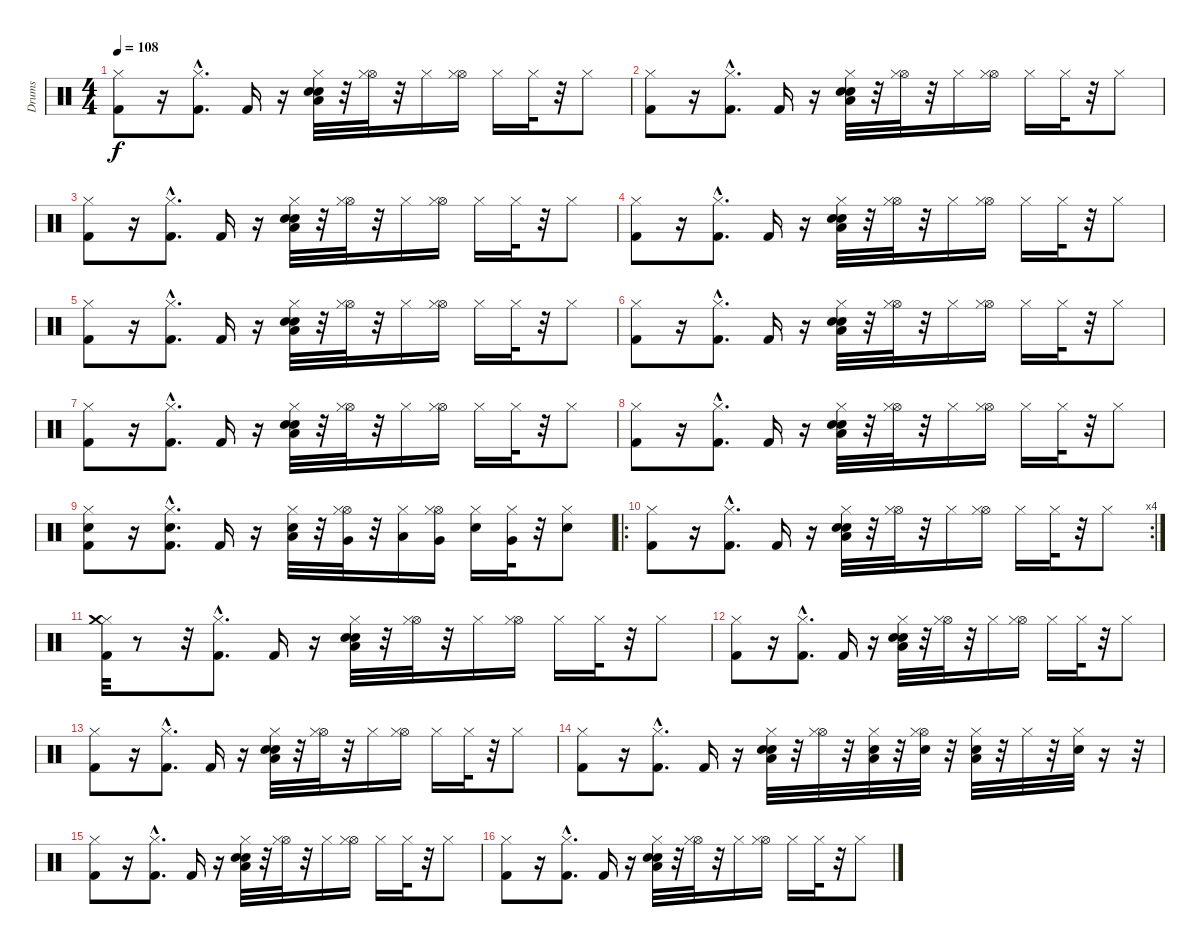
\track ("Drums" "Drums") {instrument percussion}
\staff {score}
\articulation defaults
\ts (4 4)
\tempo 108
\clef neutral
\ks c
("Hi-Hat (closed)" "Kick (hit) 2").8{dy f} r.16 ("Kick (hit) 2"{hac} "Hi-Hat (closed)"{hac}).8{d} "Kick (hit) 2".16 r.16 ("Low Floor Tom (hit)" "Electric Snare (hit)" "Snare (hit) 2" "Hi-Hat (closed)").32 r.32 ("Hi-Hat (open)" "Hi-Hat (closed)").32 r.32 "Hi-Hat (closed)".16 ("Hi-Hat (open)" "Hi-Hat (closed)").16 "Hi-Hat (closed)".16 "Hi-Hat (closed)".32 r.32 "Hi-Hat (closed)".8 |
("Hi-Hat (closed)" "Kick (hit) 2").8 r.16 ("Kick (hit) 2"{hac} "Hi-Hat (closed)"{hac}).8{d} "Kick (hit) 2".16 r.16 ("Low Floor Tom (hit)" "Electric Snare (hit)" "Snare (hit) 2" "Hi-Hat (closed)").32 r.32 ("Hi-Hat (open)" "Hi-Hat (closed)").32 r.32 "Hi-Hat (closed)".16 ("Hi-Hat (open)" "Hi-Hat (closed)").16 "Hi-Hat (closed)".16 "Hi-Hat (closed)".32 r.32 "Hi-Hat (closed)".8 |
("Hi-Hat (closed)" "Kick (hit) 2").8 r.16 ("Kick (hit) 2"{hac} "Hi-Hat (closed)"{hac}).8{d} "Kick (hit) 2".16 r.16 ("Low Floor Tom (hit)" "Electric Snare (hit)" "Snare (hit) 2" "Hi-Hat (closed)").32 r.32 ("Hi-Hat (open)" "Hi-Hat (closed)").32 r.32 "Hi-Hat (closed)".16 ("Hi-Hat (open)" "Hi-Hat (closed)").16 "Hi-Hat (closed)".16 "Hi-Hat (closed)".32 r.32 "Hi-Hat (closed)".8 |
("Hi-Hat (closed)" "Kick (hit) 2").8 r.16 ("Kick (hit) 2"{hac} "Hi-Hat (closed)"{hac}).8{d} "Kick (hit) 2".16 r.16 ("Low Floor Tom (hit)" "Electric Snare (hit)" "Snare (hit) 2" "Hi-Hat (closed)").32 r.32 ("Hi-Hat (open)" "Hi-Hat (closed)").32 r.32 "Hi-Hat (closed)".16 ("Hi-Hat (open)" "Hi-Hat (closed)").16 "Hi-Hat (closed)".16 "Hi-Hat (closed)".32 r.32 "Hi-Hat (closed)".8 |
("Hi-Hat (closed)" "Kick (hit) 2").8 r.16 ("Kick (hit) 2"{hac} "Hi-Hat (closed)"{hac}).8{d} "Kick (hit) 2".16 r.16 ("Low Floor Tom (hit)" "Electric Snare (hit)" "Snare (hit) 2" "Hi-Hat (closed)").32 r.32 ("Hi-Hat (open)" "Hi-Hat (closed)").32 r.32 "Hi-Hat (closed)".16 ("Hi-Hat (open)" "Hi-Hat (closed)").16 "Hi-Hat (closed)".16 "Hi-Hat (closed)".32 r.32 "Hi-Hat (closed)".8 |
("Hi-Hat (closed)" "Kick (hit) 2").8 r.16 ("Kick (hit) 2"{hac} "Hi-Hat (closed)"{hac}).8{d} "Kick (hit) 2".16 r.16 ("Low Floor Tom (hit)" "Electric Snare (hit)" "Snare (hit) 2" "Hi-Hat (closed)").32 r.32 ("Hi-Hat (open)" "Hi-Hat (closed)").32 r.32 "Hi-Hat (closed)".16 ("Hi-Hat (open)" "Hi-Hat (closed)").16 "Hi-Hat (closed)".16 "Hi-Hat (closed)".32 r.32 "Hi-Hat (closed)".8 |
("Hi-Hat (closed)" "Kick (hit) 2").8 r.16 ("Kick (hit) 2"{hac} "Hi-Hat (closed)"{hac}).8{d} "Kick (hit) 2".16 r.16 ("Low Floor Tom (hit)" "Electric Snare (hit)" "Snare (hit) 2" "Hi-Hat (closed)").32 r.32 ("Hi-Hat (open)" "Hi-Hat (closed)").32 r.32 "Hi-Hat (closed)".16 ("Hi-Hat (open)" "Hi-Hat (closed)").16 "Hi-Hat (closed)".16 "Hi-Hat (closed)".32 r.32 "Hi-Hat (closed)".8 |
("Hi-Hat (closed)" "Kick (hit) 2").8 r.16 ("Kick (hit) 2"{hac} "Hi-Hat (closed)"{hac}).8{d} "Kick (hit) 2".16 r.16 ("Low Floor Tom (hit)" "Electric Snare (hit)" "Snare (hit) 2" "Hi-Hat (closed)").32 r.32 ("Hi-Hat (open)" "Hi-Hat (closed)").32 r.32 "Hi-Hat (closed)".16 ("Hi-Hat (open)" "Hi-Hat (closed)").16 "Hi-Hat (closed)".16 "Hi-Hat (closed)".32 r.32 "Hi-Hat (closed)".8 |
("Kick (hit) 2" "Snare (hit) 2" "Hi-Hat (closed)").8 r.16 ("Kick (hit) 2"{hac} "Electric Snare (hit)"{hac} "Hi-Hat (closed)"{hac}).8{d} "Kick (hit) 2".16 r.16 ("Snare (hit) 2" "Low Tom (hit)" "Hi-Hat (closed)").32 r.32 ("Very Low Tom (hit)" "Hi-Hat (open)" "Hi-Hat (closed)").32 r.32 ("Hi-Hat (closed)" "Low Floor Tom (hit)").16 ("Hi-Hat (open)" "Very Low Tom (hit)" "Hi-Hat (closed)").16 ("Electric Snare (hit)" "Hi-Hat (closed)").16 ("Very Low Tom (hit)" "Hi-Hat (closed)").32 r.32 ("Snare (hit) 2" "Hi-Hat (closed)").8 |
\ro
\rc 4
("Hi-Hat (closed)" "Kick (hit) 2").8 r.16 ("Kick (hit) 2"{hac} "Hi-Hat (closed)"{hac}).8{d} "Kick (hit) 2".16 r.16 ("Low Floor Tom (hit)" "Electric Snare (hit)" "Snare (hit) 2" "Hi-Hat (closed)").32 r.32 ("Hi-Hat (open)" "Hi-Hat (closed)").32 r.32 "Hi-Hat (closed)".16 ("Hi-Hat (open)" "Hi-Hat (closed)").16 "Hi-Hat (closed)".16 "Hi-Hat (closed)".32 r.32 "Hi-Hat (closed)".8 |
("Hi-Hat (closed)" "Kick (hit) 2" "Crash medium (hit)").32 r.8 r.32 ("Kick (hit) 2"{hac} "Hi-Hat (closed)"{hac}).8{d} "Kick (hit) 2".16 r.16 ("Low Floor Tom (hit)" "Electric Snare (hit)" "Snare (hit) 2" "Hi-Hat (closed)").32 r.32 ("Hi-Hat (open)" "Hi-Hat (closed)").32 r.32 "Hi-Hat (closed)".16 ("Hi-Hat (open)" "Hi-Hat (closed)").16 "Hi-Hat (closed)".16 "Hi-Hat (closed)".32 r.32 "Hi-Hat (closed)".8 |
("Hi-Hat (closed)" "Kick (hit) 2").8 r.16 ("Kick (hit) 2"{hac} "Hi-Hat (closed)"{hac}).8{d} "Kick (hit) 2".16 r.16 ("Low Floor Tom (hit)" "Electric Snare (hit)" "Snare (hit) 2" "Hi-Hat (closed)").32 r.32 ("Hi-Hat (open)" "Hi-Hat (closed)").32 r.32 "Hi-Hat (closed)".16 ("Hi-Hat (open)" "Hi-Hat (closed)").16 "Hi-Hat (closed)".16 "Hi-Hat (closed)".32 r.32 "Hi-Hat (closed)".8 |
("Hi-Hat (closed)" "Kick (hit) 2").8 r.16 ("Kick (hit) 2"{hac} "Hi-Hat (closed)"{hac}).8{d} "Kick (hit) 2".16 r.16 ("Low Floor Tom (hit)" "Electric Snare (hit)" "Snare (hit) 2" "Hi-Hat (closed)").32 r.32 ("Hi-Hat (open)" "Hi-Hat (closed)").32 r.32 "Hi-Hat (closed)".16 ("Hi-Hat (open)" "Hi-Hat (closed)").16 "Hi-Hat (closed)".16 "Hi-Hat (closed)".32 r.32 "Hi-Hat (closed)".8 |
("Hi-Hat (closed)" "Kick (hit) 2").8 r.16 ("Kick (hit) 2"{hac} "Hi-Hat (closed)"{hac}).8{d} "Kick (hit) 2".16 r.16 ("Low Floor Tom (hit)" "Electric Snare (hit)" "Snare (hit) 2" "Hi-Hat (closed)").32 r.32 ("Hi-Hat (open)" "Hi-Hat (closed)").32 r.32 ("Hi-Hat (closed)" "Electric Snare (hit)" "Low Tom (hit)").32 r.32 ("Hi-Hat (open)" "Hi-Hat (closed)" "Electric Snare (hit)").32 r.32 ("Hi-Hat (closed)" "Electric Snare (hit)" "Low Tom (hit)").32 r.32 "Hi-Hat (closed)".32 r.32 ("Hi-Hat (closed)" "Electric Snare (hit)").32 r.16 r.32 |
("Hi-Hat (closed)" "Kick (hit) 2").8 r.16 ("Kick (hit) 2"{hac} "Hi-Hat (closed)"{hac}).8{d} "Kick (hit) 2".16 r.16 ("Low Floor Tom (hit)" "Electric Snare (hit)" "Snare (hit) 2" "Hi-Hat (closed)").32 r.32 ("Hi-Hat (open)" "Hi-Hat (closed)").32 r.32 "Hi-Hat (closed)".16 ("Hi-Hat (open)" "Hi-Hat (closed)").16 "Hi-Hat (closed)".16 "Hi-Hat (closed)".32 r.32 "Hi-Hat (closed)".8 |
("Hi-Hat (closed)" "Kick (hit) 2").8 r.16 ("Kick (hit) 2"{hac} "Hi-Hat (closed)"{hac}).8{d} "Kick (hit) 2".16 r.16 ("Low Floor Tom (hit)" "Electric Snare (hit)" "Snare (hit) 2" "Hi-Hat (closed)").32 r.32 ("Hi-Hat (open)" "Hi-Hat (closed)").32 r.32 "Hi-Hat (closed)".16 ("Hi-Hat (open)" "Hi-Hat (closed)").16 "Hi-Hat (closed)".16 "Hi-Hat (closed)".32 r.32 "Hi-Hat (closed)".8
